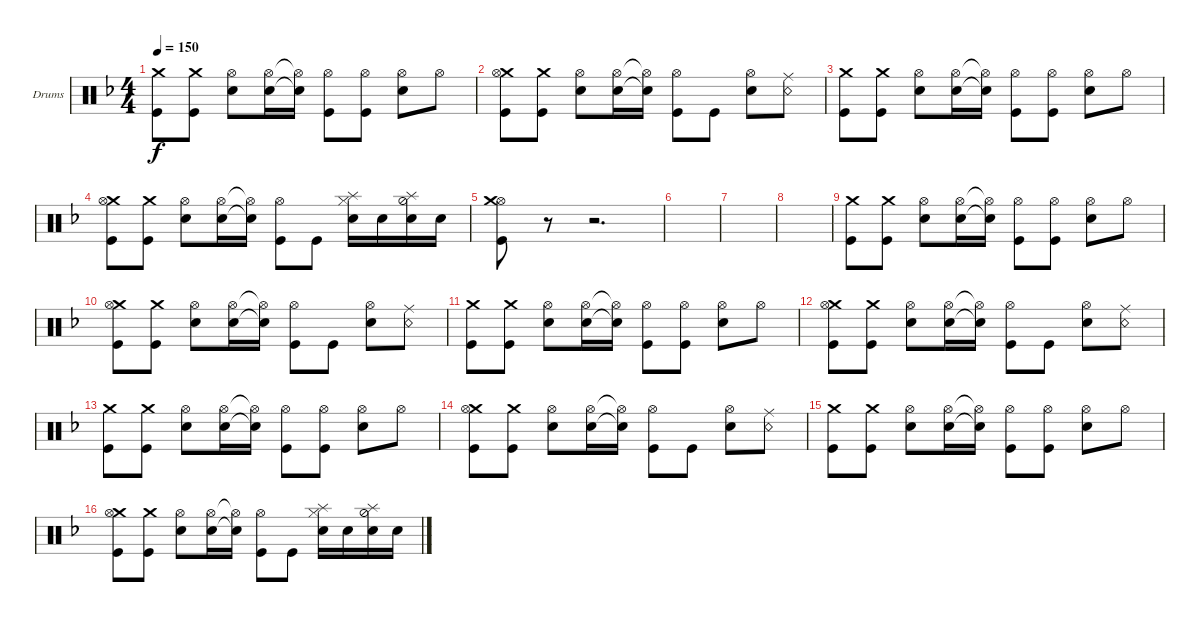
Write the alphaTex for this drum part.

\defaultSystemsLayout 4
\bracketExtendMode groupsimilarinstruments
\firstSystemTrackNameOrientation horizontal
\otherSystemsTrackNameOrientation horizontal
\track ("Шуруп - Ударные" "Drums") {instrument percussion}
\staff {score}
\articulation defaults
\ts (4 4)
\tempo 150
\clef neutral
\ks f
("Kick (hit)" "Crash medium (hit)").8{dy f} ("Kick (hit)" "Crash medium (hit)").8 ("Snare (hit) 2" "Hi-Hat (open)").8 ("Snare (hit) 2" "Hi-Hat (open)").16 ("Snare (hit) 2"{t} "Hi-Hat (open)"{t}).16 ("Kick (hit)" "Hi-Hat (open)").8 ("Kick (hit)" "Hi-Hat (open)").8 ("Snare (hit) 2" "Hi-Hat (open)").8 "Hi-Hat (open)".8 |
("Kick (hit)" "Crash medium (hit)" "Hi-Hat (open)").8 ("Kick (hit)" "Crash medium (hit)").8 ("Snare (hit) 2" "Hi-Hat (open)").8 ("Snare (hit) 2" "Hi-Hat (open)").16 ("Snare (hit) 2"{t} "Hi-Hat (open)"{t}).16 ("Kick (hit)" "Hi-Hat (open)").8 "Kick (hit)".8 ("Snare (hit) 2" "Hi-Hat (open)").8 ("Snare (rim shot)" "Ride (middle)").8 |
("Kick (hit)" "Crash medium (hit)").8 ("Kick (hit)" "Crash medium (hit)").8 ("Snare (hit) 2" "Hi-Hat (open)").8 ("Snare (hit) 2" "Hi-Hat (open)").16 ("Snare (hit) 2"{t} "Hi-Hat (open)"{t}).16 ("Kick (hit)" "Hi-Hat (open)").8 ("Kick (hit)" "Hi-Hat (open)").8 ("Snare (hit) 2" "Hi-Hat (open)").8 "Hi-Hat (open)".8 |
("Kick (hit)" "Crash medium (hit)" "Hi-Hat (open)").8 ("Kick (hit)" "Crash medium (hit)").8 ("Snare (hit) 2" "Hi-Hat (open)").8 ("Snare (hit) 2" "Hi-Hat (open)").16 ("Snare (hit) 2"{t} "Hi-Hat (open)"{t}).16 ("Kick (hit)" "Hi-Hat (open)").8 "Kick (hit)".8 ("Snare (hit) 2" "Hi-Hat (closed)" "Splash (hit)").16 "Snare (hit) 2".16 ("Hi-Hat (half)" "Splash (hit)" "Snare (hit) 2").16 "Snare (hit) 2".16 |
("Hi-Hat (open)" "Crash medium (hit)" "Kick (hit)").8 r.8 r.2{d} |
|
|
|
("Kick (hit)" "Crash medium (hit)").8 ("Kick (hit)" "Crash medium (hit)").8 ("Snare (hit) 2" "Hi-Hat (open)").8 ("Snare (hit) 2" "Hi-Hat (open)").16 ("Snare (hit) 2"{t} "Hi-Hat (open)"{t}).16 ("Kick (hit)" "Hi-Hat (open)").8 ("Kick (hit)" "Hi-Hat (open)").8 ("Snare (hit) 2" "Hi-Hat (open)").8 "Hi-Hat (open)".8 |
("Kick (hit)" "Crash medium (hit)" "Hi-Hat (open)").8 ("Kick (hit)" "Crash medium (hit)").8 ("Snare (hit) 2" "Hi-Hat (open)").8 ("Snare (hit) 2" "Hi-Hat (open)").16 ("Snare (hit) 2"{t} "Hi-Hat (open)"{t}).16 ("Kick (hit)" "Hi-Hat (open)").8 "Kick (hit)".8 ("Snare (hit) 2" "Hi-Hat (open)").8 ("Snare (rim shot)" "Ride (middle)").8 |
("Kick (hit)" "Crash medium (hit)").8 ("Kick (hit)" "Crash medium (hit)").8 ("Snare (hit) 2" "Hi-Hat (open)").8 ("Snare (hit) 2" "Hi-Hat (open)").16 ("Snare (hit) 2"{t} "Hi-Hat (open)"{t}).16 ("Kick (hit)" "Hi-Hat (open)").8 ("Kick (hit)" "Hi-Hat (open)").8 ("Snare (hit) 2" "Hi-Hat (open)").8 "Hi-Hat (open)".8 |
("Kick (hit)" "Crash medium (hit)" "Hi-Hat (open)").8 ("Kick (hit)" "Crash medium (hit)").8 ("Snare (hit) 2" "Hi-Hat (open)").8 ("Snare (hit) 2" "Hi-Hat (open)").16 ("Snare (hit) 2"{t} "Hi-Hat (open)"{t}).16 ("Kick (hit)" "Hi-Hat (open)").8 "Kick (hit)".8 ("Snare (hit) 2" "Hi-Hat (open)").8 ("Snare (rim shot)" "Ride (middle)").8 |
("Kick (hit)" "Crash medium (hit)").8 ("Kick (hit)" "Crash medium (hit)").8 ("Snare (hit) 2" "Hi-Hat (open)").8 ("Snare (hit) 2" "Hi-Hat (open)").16 ("Snare (hit) 2"{t} "Hi-Hat (open)"{t}).16 ("Kick (hit)" "Hi-Hat (open)").8 ("Kick (hit)" "Hi-Hat (open)").8 ("Snare (hit) 2" "Hi-Hat (open)").8 "Hi-Hat (open)".8 |
("Kick (hit)" "Crash medium (hit)" "Hi-Hat (open)").8 ("Kick (hit)" "Crash medium (hit)").8 ("Snare (hit) 2" "Hi-Hat (open)").8 ("Snare (hit) 2" "Hi-Hat (open)").16 ("Snare (hit) 2"{t} "Hi-Hat (open)"{t}).16 ("Kick (hit)" "Hi-Hat (open)").8 "Kick (hit)".8 ("Snare (hit) 2" "Hi-Hat (open)").8 ("Snare (rim shot)" "Ride (middle)").8 |
("Kick (hit)" "Crash medium (hit)").8 ("Kick (hit)" "Crash medium (hit)").8 ("Snare (hit) 2" "Hi-Hat (open)").8 ("Snare (hit) 2" "Hi-Hat (open)").16 ("Snare (hit) 2"{t} "Hi-Hat (open)"{t}).16 ("Kick (hit)" "Hi-Hat (open)").8 ("Kick (hit)" "Hi-Hat (open)").8 ("Snare (hit) 2" "Hi-Hat (open)").8 "Hi-Hat (open)".8 |
("Kick (hit)" "Crash medium (hit)" "Hi-Hat (open)").8 ("Kick (hit)" "Crash medium (hit)").8 ("Snare (hit) 2" "Hi-Hat (open)").8 ("Snare (hit) 2" "Hi-Hat (open)").16 ("Snare (hit) 2"{t} "Hi-Hat (open)"{t}).16 ("Kick (hit)" "Hi-Hat (open)").8 "Kick (hit)".8 ("Snare (hit) 2" "Hi-Hat (closed)" "Splash (hit)").16 "Snare (hit) 2".16 ("Hi-Hat (half)" "Splash (hit)" "Snare (hit) 2").16 "Snare (hit) 2".16
